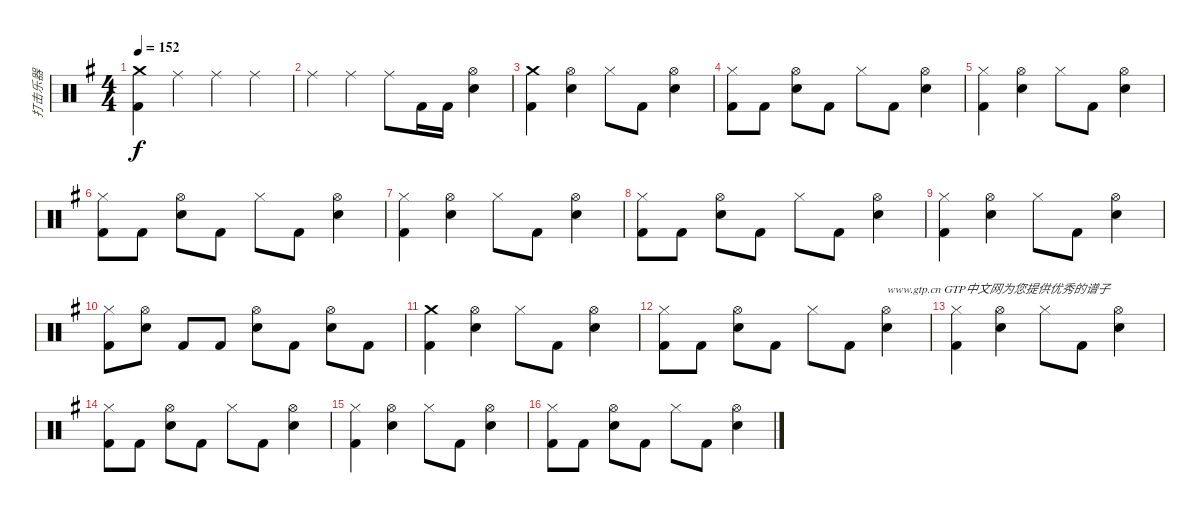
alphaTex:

\track ("打击乐器" "打击乐器") {instrument percussion}
\staff {score}
\articulation defaults
\ts (4 4)
\tempo 152
\clef neutral
\ks g
("Crash medium (hit)" "Kick (hit) 2").4{dy f} "Ride (middle)".4 "Ride (middle)".4 "Ride (middle)".4 |
"Ride (middle)".4 "Ride (middle)".4 "Ride (middle)".8 "Kick (hit) 2".16 "Kick (hit) 2".16 ("Hi-Hat (open)" "Metronome (bell)").4 |
("Crash medium (hit)" "Kick (hit) 2").4 ("Hi-Hat (open)" "Metronome (bell)").4 "Hi-Hat (closed)".8 "Kick (hit) 2".8 ("Hi-Hat (open)" "Metronome (bell)").4 |
("Hi-Hat (closed)" "Kick (hit) 2").8 "Kick (hit) 2".8 ("Hi-Hat (open)" "Metronome (bell)").8 "Kick (hit) 2".8 "Hi-Hat (closed)".8 "Kick (hit) 2".8 ("Hi-Hat (open)" "Metronome (bell)").4 |
("Hi-Hat (closed)" "Kick (hit) 2").4 ("Hi-Hat (open)" "Metronome (bell)").4 "Hi-Hat (closed)".8 "Kick (hit) 2".8 ("Hi-Hat (open)" "Metronome (bell)").4 |
("Hi-Hat (closed)" "Kick (hit) 2").8 "Kick (hit) 2".8 ("Hi-Hat (open)" "Metronome (bell)").8 "Kick (hit) 2".8 "Hi-Hat (closed)".8 "Kick (hit) 2".8 ("Hi-Hat (open)" "Metronome (bell)").4 |
("Hi-Hat (closed)" "Kick (hit) 2").4 ("Hi-Hat (open)" "Metronome (bell)").4 "Hi-Hat (closed)".8 "Kick (hit) 2".8 ("Hi-Hat (open)" "Metronome (bell)").4 |
("Hi-Hat (closed)" "Kick (hit) 2").8 "Kick (hit) 2".8 ("Hi-Hat (open)" "Metronome (bell)").8 "Kick (hit) 2".8 "Hi-Hat (closed)".8 "Kick (hit) 2".8 ("Hi-Hat (open)" "Metronome (bell)").4 |
("Hi-Hat (closed)" "Kick (hit) 2").4 ("Hi-Hat (open)" "Metronome (bell)").4 "Hi-Hat (closed)".8 "Kick (hit) 2".8 ("Hi-Hat (open)" "Metronome (bell)").4 |
("Hi-Hat (closed)" "Kick (hit) 2").8 ("Hi-Hat (open)" "Metronome (bell)").8 "Kick (hit) 2".8 "Kick (hit) 2".8 ("Hi-Hat (open)" "Metronome (bell)").8 "Kick (hit) 2".8 ("Hi-Hat (open)" "Metronome (bell)").8 "Kick (hit) 2".8 |
("Crash medium (hit)" "Kick (hit) 2").4 ("Hi-Hat (open)" "Metronome (bell)").4 "Hi-Hat (closed)".8 "Kick (hit) 2".8 ("Hi-Hat (open)" "Metronome (bell)").4 |
("Hi-Hat (closed)" "Kick (hit) 2").8 "Kick (hit) 2".8 ("Hi-Hat (open)" "Metronome (bell)").8 "Kick (hit) 2".8 "Hi-Hat (closed)".8 "Kick (hit) 2".8 ("Hi-Hat (open)" "Metronome (bell)").4{txt "www.gtp.cn GTP中文网为您提供优秀的谱子"} |
("Hi-Hat (closed)" "Kick (hit) 2").4 ("Hi-Hat (open)" "Metronome (bell)").4 "Hi-Hat (closed)".8 "Kick (hit) 2".8 ("Hi-Hat (open)" "Metronome (bell)").4 |
("Hi-Hat (closed)" "Kick (hit) 2").8 "Kick (hit) 2".8 ("Hi-Hat (open)" "Metronome (bell)").8 "Kick (hit) 2".8 "Hi-Hat (closed)".8 "Kick (hit) 2".8 ("Hi-Hat (open)" "Metronome (bell)").4 |
("Hi-Hat (closed)" "Kick (hit) 2").4 ("Hi-Hat (open)" "Metronome (bell)").4 "Hi-Hat (closed)".8 "Kick (hit) 2".8 ("Hi-Hat (open)" "Metronome (bell)").4 |
("Hi-Hat (closed)" "Kick (hit) 2").8 "Kick (hit) 2".8 ("Hi-Hat (open)" "Metronome (bell)").8 "Kick (hit) 2".8 "Hi-Hat (closed)".8 "Kick (hit) 2".8 ("Hi-Hat (open)" "Metronome (bell)").4
